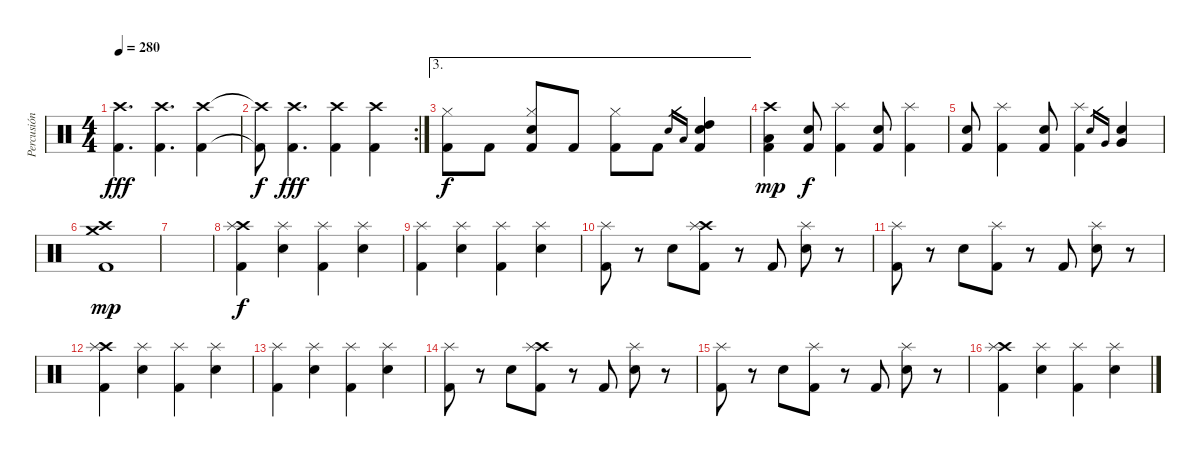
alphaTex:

\track ("Percusión" "Percusión") {instrument percussion}
\staff {score}
\articulation defaults
\ts (4 4)
\tempo 280
\clef neutral
\ks c
("Crash high (hit)" "Kick (hit) 2").4{d dy fff} ("Crash high (hit)" "Kick (hit) 2").4{d} ("Crash high (hit)" "Kick (hit) 2").4 |
\rc 2
("Crash high (hit)"{t} "Kick (hit) 2"{t}).8{dy f} ("Crash high (hit)" "Kick (hit) 2").4{d dy fff} ("Crash high (hit)" "Kick (hit) 2").4 ("Crash high (hit)" "Kick (hit) 2").4 |
\ae 3
("Hi-Hat (closed)" "Kick (hit) 2").8{dy f} "Kick (hit) 2".8 ("Snare (hit) 2" "Hi-Hat (closed)" "Kick (hit) 2").8 "Kick (hit) 2".8 ("Hi-Hat (closed)" "Kick (hit) 2").8 "Kick (hit) 2".8 "Snare (hit) 2".16{gr} "Low Tom (hit)".16{gr} ("Snare (hit) 2" "High Tom (hit)" "Kick (hit) 2").4 |
("Low Tom (hit)" "Crash high (hit)" "Kick (hit) 2").4{dy mp} ("Snare (hit) 2" "Kick (hit) 2").8{dy f} ("Splash (hit)" "Kick (hit) 2").4 ("Snare (hit) 2" "Kick (hit) 2").8 ("Splash (hit)" "Kick (hit) 2").4 |
("Snare (hit) 2" "Kick (hit) 2").8 ("Splash (hit)" "Kick (hit) 2").4 ("Snare (hit) 2" "Kick (hit) 2").8 ("Splash (hit)" "Kick (hit) 2").4 "Snare (hit) 2".16{gr} "Very Low Tom (hit)".16{gr} ("Snare (hit) 2" "Very Low Tom (hit)").4 |
("Crash high (hit)" "Crash medium (hit)" "Kick (hit) 2").1{dy mp} |
|
("Crash high (hit)" "Splash (hit)" "Kick (hit) 2").4{dy f} ("Snare (hit) 2" "Splash (hit)").4 ("Splash (hit)" "Kick (hit) 2").4 ("Snare (hit) 2" "Splash (hit)").4 |
("Splash (hit)" "Kick (hit) 2").4 ("Snare (hit) 2" "Splash (hit)").4 ("Splash (hit)" "Kick (hit) 2").4 ("Snare (hit) 2" "Splash (hit)").4 |
("Splash (hit)" "Kick (hit) 2").8 r.8 "Snare (hit) 2".8 ("Crash high (hit)" "Splash (hit)" "Kick (hit) 2").8 r.8 "Kick (hit) 2".8 ("Snare (hit) 2" "Splash (hit)").8 r.8 |
("Splash (hit)" "Kick (hit) 2").8 r.8 "Snare (hit) 2".8 ("Splash (hit)" "Kick (hit) 2").8 r.8 "Kick (hit) 2".8 ("Snare (hit) 2" "Splash (hit)").8 r.8 |
("Crash high (hit)" "Splash (hit)" "Kick (hit) 2").4 ("Snare (hit) 2" "Splash (hit)").4 ("Splash (hit)" "Kick (hit) 2").4 ("Snare (hit) 2" "Splash (hit)").4 |
("Splash (hit)" "Kick (hit) 2").4 ("Snare (hit) 2" "Splash (hit)").4 ("Splash (hit)" "Kick (hit) 2").4 ("Snare (hit) 2" "Splash (hit)").4 |
("Splash (hit)" "Kick (hit) 2").8 r.8 "Snare (hit) 2".8 ("Crash high (hit)" "Splash (hit)" "Kick (hit) 2").8 r.8 "Kick (hit) 2".8 ("Snare (hit) 2" "Splash (hit)").8 r.8 |
("Splash (hit)" "Kick (hit) 2").8 r.8 "Snare (hit) 2".8 ("Splash (hit)" "Kick (hit) 2").8 r.8 "Kick (hit) 2".8 ("Snare (hit) 2" "Splash (hit)").8 r.8 |
("Crash high (hit)" "Splash (hit)" "Kick (hit) 2").4 ("Snare (hit) 2" "Splash (hit)").4 ("Splash (hit)" "Kick (hit) 2").4 ("Snare (hit) 2" "Splash (hit)").4
